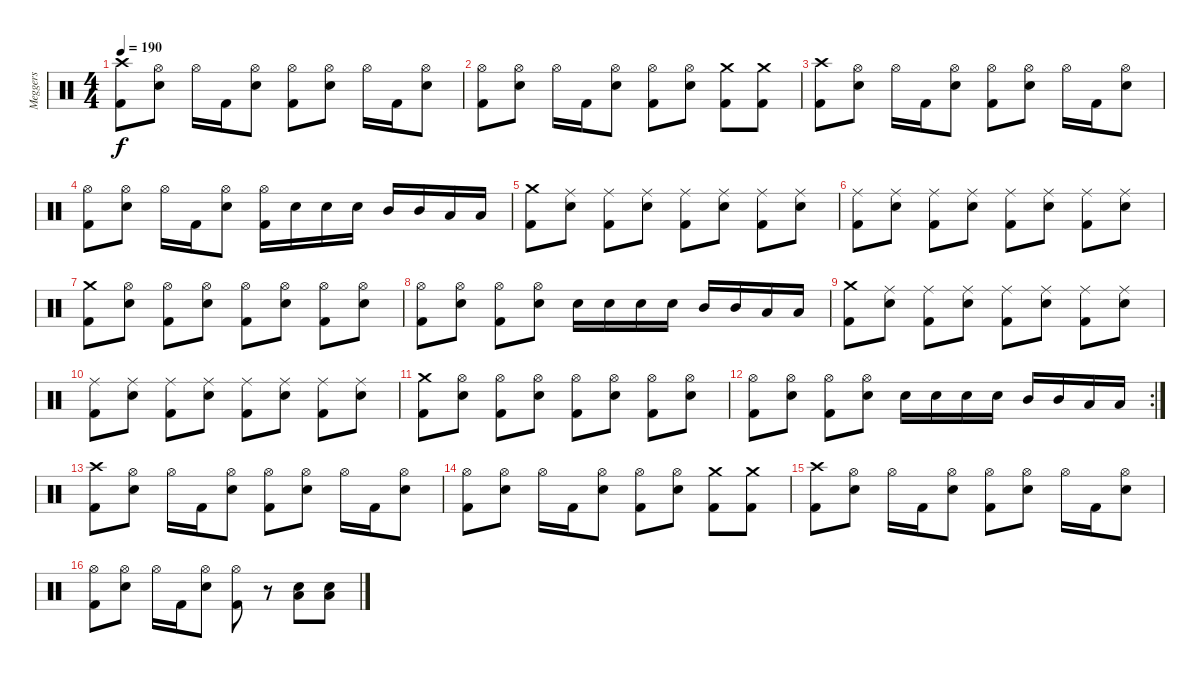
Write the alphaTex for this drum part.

\track ("Meggers" "Meggers") {instrument percussion}
\staff {score}
\articulation defaults
\ts (4 4)
\tempo 190
\clef neutral
\ks c
("Crash high (hit)" "Kick (hit) 2").8{dy f} ("Hi-Hat (open)" "Electric Snare (hit)").8 "Hi-Hat (open)".16 "Kick (hit) 2".16 ("Hi-Hat (open)" "Electric Snare (hit)").8 ("Hi-Hat (open)" "Kick (hit) 2").8 ("Hi-Hat (open)" "Electric Snare (hit)").8 "Hi-Hat (open)".16 "Kick (hit) 2".16 ("Hi-Hat (open)" "Electric Snare (hit)").8 |
("Hi-Hat (open)" "Kick (hit) 2").8 ("Hi-Hat (open)" "Electric Snare (hit)").8 "Hi-Hat (open)".16 "Kick (hit) 2".16 ("Hi-Hat (open)" "Electric Snare (hit)").8 ("Hi-Hat (open)" "Kick (hit) 2").8 ("Hi-Hat (open)" "Electric Snare (hit)").8 ("Crash medium (hit)" "Kick (hit) 2").8 ("Crash medium (hit)" "Kick (hit) 2").8 |
("Crash high (hit)" "Kick (hit) 2").8 ("Hi-Hat (open)" "Electric Snare (hit)").8 "Hi-Hat (open)".16 "Kick (hit) 2".16 ("Hi-Hat (open)" "Electric Snare (hit)").8 ("Hi-Hat (open)" "Kick (hit) 2").8 ("Hi-Hat (open)" "Electric Snare (hit)").8 "Hi-Hat (open)".16 "Kick (hit) 2".16 ("Hi-Hat (open)" "Electric Snare (hit)").8 |
("Hi-Hat (open)" "Kick (hit) 2").8 ("Hi-Hat (open)" "Electric Snare (hit)").8 "Hi-Hat (open)".16 "Kick (hit) 2".16 ("Hi-Hat (open)" "Electric Snare (hit)").8 ("Hi-Hat (open)" "Kick (hit) 2").16 "Electric Snare (hit)".16 "Electric Snare (hit)".16 "Electric Snare (hit)".16 "Mid Tom (hit)".16 "Mid Tom (hit)".16 "Low Tom (hit)".16 "Low Tom (hit)".16 |
("Crash medium (hit)" "Kick (hit) 2").8 ("Ride (middle)" "Electric Snare (hit)").8 ("Ride (middle)" "Kick (hit) 2").8 ("Ride (middle)" "Electric Snare (hit)").8 ("Ride (middle)" "Kick (hit) 2").8 ("Ride (middle)" "Electric Snare (hit)").8 ("Ride (middle)" "Kick (hit) 2").8 ("Ride (middle)" "Electric Snare (hit)").8 |
("Ride (middle)" "Kick (hit) 2").8 ("Ride (middle)" "Electric Snare (hit)").8 ("Ride (middle)" "Kick (hit) 2").8 ("Ride (middle)" "Electric Snare (hit)").8 ("Ride (middle)" "Kick (hit) 2").8 ("Ride (middle)" "Electric Snare (hit)").8 ("Ride (middle)" "Kick (hit) 2").8 ("Ride (middle)" "Electric Snare (hit)").8 |
("Crash medium (hit)" "Kick (hit) 2").8 ("Hi-Hat (open)" "Electric Snare (hit)").8 ("Hi-Hat (open)" "Kick (hit) 2").8 ("Hi-Hat (open)" "Electric Snare (hit)").8 ("Hi-Hat (open)" "Kick (hit) 2").8 ("Hi-Hat (open)" "Electric Snare (hit)").8 ("Hi-Hat (open)" "Kick (hit) 2").8 ("Hi-Hat (open)" "Electric Snare (hit)").8 |
("Hi-Hat (open)" "Kick (hit) 2").8 ("Hi-Hat (open)" "Electric Snare (hit)").8 ("Hi-Hat (open)" "Kick (hit) 2").8 ("Hi-Hat (open)" "Electric Snare (hit)").8 "Electric Snare (hit)".16 "Electric Snare (hit)".16 "Electric Snare (hit)".16 "Electric Snare (hit)".16 "Mid Tom (hit)".16 "Mid Tom (hit)".16 "Low Tom (hit)".16 "Low Tom (hit)".16 |
("Crash medium (hit)" "Kick (hit) 2").8 ("Ride (middle)" "Electric Snare (hit)").8 ("Ride (middle)" "Kick (hit) 2").8 ("Ride (middle)" "Electric Snare (hit)").8 ("Ride (middle)" "Kick (hit) 2").8 ("Ride (middle)" "Electric Snare (hit)").8 ("Ride (middle)" "Kick (hit) 2").8 ("Ride (middle)" "Electric Snare (hit)").8 |
("Ride (middle)" "Kick (hit) 2").8 ("Ride (middle)" "Electric Snare (hit)").8 ("Ride (middle)" "Kick (hit) 2").8 ("Ride (middle)" "Electric Snare (hit)").8 ("Ride (middle)" "Kick (hit) 2").8 ("Ride (middle)" "Electric Snare (hit)").8 ("Ride (middle)" "Kick (hit) 2").8 ("Ride (middle)" "Electric Snare (hit)").8 |
("Crash medium (hit)" "Kick (hit) 2").8 ("Hi-Hat (open)" "Electric Snare (hit)").8 ("Hi-Hat (open)" "Kick (hit) 2").8 ("Hi-Hat (open)" "Electric Snare (hit)").8 ("Hi-Hat (open)" "Kick (hit) 2").8 ("Hi-Hat (open)" "Electric Snare (hit)").8 ("Hi-Hat (open)" "Kick (hit) 2").8 ("Hi-Hat (open)" "Electric Snare (hit)").8 |
\rc 2
("Hi-Hat (open)" "Kick (hit) 2").8 ("Hi-Hat (open)" "Electric Snare (hit)").8 ("Hi-Hat (open)" "Kick (hit) 2").8 ("Hi-Hat (open)" "Electric Snare (hit)").8 "Electric Snare (hit)".16 "Electric Snare (hit)".16 "Electric Snare (hit)".16 "Electric Snare (hit)".16 "Mid Tom (hit)".16 "Mid Tom (hit)".16 "Low Tom (hit)".16 "Low Tom (hit)".16 |
("Crash high (hit)" "Kick (hit) 2").8 ("Hi-Hat (open)" "Electric Snare (hit)").8 "Hi-Hat (open)".16 "Kick (hit) 2".16 ("Hi-Hat (open)" "Electric Snare (hit)").8 ("Hi-Hat (open)" "Kick (hit) 2").8 ("Hi-Hat (open)" "Electric Snare (hit)").8 "Hi-Hat (open)".16 "Kick (hit) 2".16 ("Hi-Hat (open)" "Electric Snare (hit)").8 |
("Hi-Hat (open)" "Kick (hit) 2").8 ("Hi-Hat (open)" "Electric Snare (hit)").8 "Hi-Hat (open)".16 "Kick (hit) 2".16 ("Hi-Hat (open)" "Electric Snare (hit)").8 ("Hi-Hat (open)" "Kick (hit) 2").8 ("Hi-Hat (open)" "Electric Snare (hit)").8 ("Crash medium (hit)" "Kick (hit) 2").8 ("Crash medium (hit)" "Kick (hit) 2").8 |
("Crash high (hit)" "Kick (hit) 2").8 ("Hi-Hat (open)" "Electric Snare (hit)").8 "Hi-Hat (open)".16 "Kick (hit) 2".16 ("Hi-Hat (open)" "Electric Snare (hit)").8 ("Hi-Hat (open)" "Kick (hit) 2").8 ("Hi-Hat (open)" "Electric Snare (hit)").8 "Hi-Hat (open)".16 "Kick (hit) 2".16 ("Hi-Hat (open)" "Electric Snare (hit)").8 |
("Hi-Hat (open)" "Kick (hit) 2").8 ("Hi-Hat (open)" "Electric Snare (hit)").8 "Hi-Hat (open)".16 "Kick (hit) 2".16 ("Hi-Hat (open)" "Electric Snare (hit)").8 ("Hi-Hat (open)" "Kick (hit) 2").8 r.8 ("Low Floor Tom (hit)" "Electric Snare (hit)").8 ("Low Floor Tom (hit)" "Electric Snare (hit)").8
